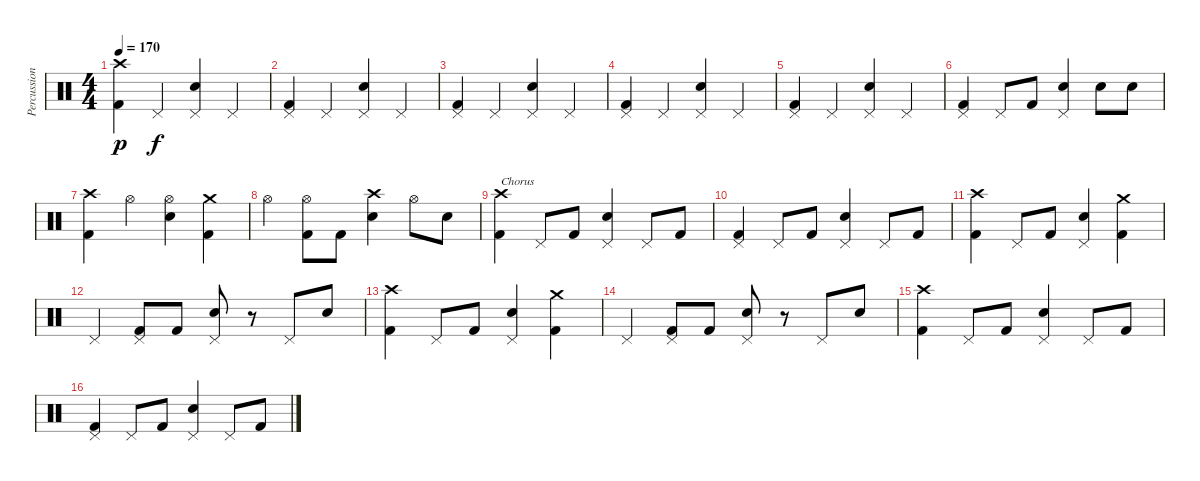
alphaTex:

\track ("Percussion" "Percussion") {instrument percussion}
\staff {score}
\articulation defaults
\ts (4 4)
\tempo 170
\clef neutral
\ks c
("Crash high (hit)" "Kick (hit) 2").4{dy p} "Pedal Hi-Hat (hit)".4{dy f} ("Pedal Hi-Hat (hit)" "Snare (hit) 2").4 "Pedal Hi-Hat (hit)".4 |
("Pedal Hi-Hat (hit)" "Kick (hit) 2").4 "Pedal Hi-Hat (hit)".4 ("Pedal Hi-Hat (hit)" "Snare (hit) 2").4 "Pedal Hi-Hat (hit)".4 |
("Pedal Hi-Hat (hit)" "Kick (hit) 2").4 "Pedal Hi-Hat (hit)".4 ("Pedal Hi-Hat (hit)" "Snare (hit) 2").4 "Pedal Hi-Hat (hit)".4 |
("Pedal Hi-Hat (hit)" "Kick (hit) 2").4 "Pedal Hi-Hat (hit)".4 ("Pedal Hi-Hat (hit)" "Snare (hit) 2").4 "Pedal Hi-Hat (hit)".4 |
("Pedal Hi-Hat (hit)" "Kick (hit) 2").4 "Pedal Hi-Hat (hit)".4 ("Pedal Hi-Hat (hit)" "Snare (hit) 2").4 "Pedal Hi-Hat (hit)".4 |
("Pedal Hi-Hat (hit)" "Kick (hit) 2").4 "Pedal Hi-Hat (hit)".8 "Kick (hit) 2".8 ("Pedal Hi-Hat (hit)" "Snare (hit) 2").4 "Snare (hit) 2".8 "Snare (hit) 2".8 |
("Crash high (hit)" "Kick (hit) 2").4 "Hi-Hat (open)".4 ("Hi-Hat (open)" "Snare (hit) 2").4 ("Crash medium (hit)" "Kick (hit) 2").4 |
"Hi-Hat (open)".4 ("Hi-Hat (open)" "Kick (hit) 2").8 "Kick (hit) 2".8 ("Crash high (hit)" "Snare (hit) 2").4 "Hi-Hat (open)".8 "Snare (hit) 2".8 |
("Crash high (hit)" "Kick (hit) 2").4{txt "Chorus"} "Pedal Hi-Hat (hit)".8 "Kick (hit) 2".8 ("Pedal Hi-Hat (hit)" "Snare (hit) 2").4 "Pedal Hi-Hat (hit)".8 "Kick (hit) 2".8 |
("Pedal Hi-Hat (hit)" "Kick (hit) 2").4 "Pedal Hi-Hat (hit)".8 "Kick (hit) 2".8 ("Pedal Hi-Hat (hit)" "Snare (hit) 2").4 "Pedal Hi-Hat (hit)".8 "Kick (hit) 2".8 |
("Crash high (hit)" "Kick (hit) 2").4 "Pedal Hi-Hat (hit)".8 "Kick (hit) 2".8 ("Pedal Hi-Hat (hit)" "Snare (hit) 2").4 ("Crash medium (hit)" "Kick (hit) 2").4 |
"Pedal Hi-Hat (hit)".4 ("Pedal Hi-Hat (hit)" "Kick (hit) 2").8 "Kick (hit) 2".8 ("Pedal Hi-Hat (hit)" "Snare (hit) 2").8 r.8 "Pedal Hi-Hat (hit)".8 "Snare (hit) 2".8 |
("Crash high (hit)" "Kick (hit) 2").4 "Pedal Hi-Hat (hit)".8 "Kick (hit) 2".8 ("Pedal Hi-Hat (hit)" "Snare (hit) 2").4 ("Crash medium (hit)" "Kick (hit) 2").4 |
"Pedal Hi-Hat (hit)".4 ("Pedal Hi-Hat (hit)" "Kick (hit) 2").8 "Kick (hit) 2".8 ("Pedal Hi-Hat (hit)" "Snare (hit) 2").8 r.8 "Pedal Hi-Hat (hit)".8 "Snare (hit) 2".8 |
("Crash high (hit)" "Kick (hit) 2").4 "Pedal Hi-Hat (hit)".8 "Kick (hit) 2".8 ("Pedal Hi-Hat (hit)" "Snare (hit) 2").4 "Pedal Hi-Hat (hit)".8 "Kick (hit) 2".8 |
("Pedal Hi-Hat (hit)" "Kick (hit) 2").4 "Pedal Hi-Hat (hit)".8 "Kick (hit) 2".8 ("Pedal Hi-Hat (hit)" "Snare (hit) 2").4 "Pedal Hi-Hat (hit)".8 "Kick (hit) 2".8
